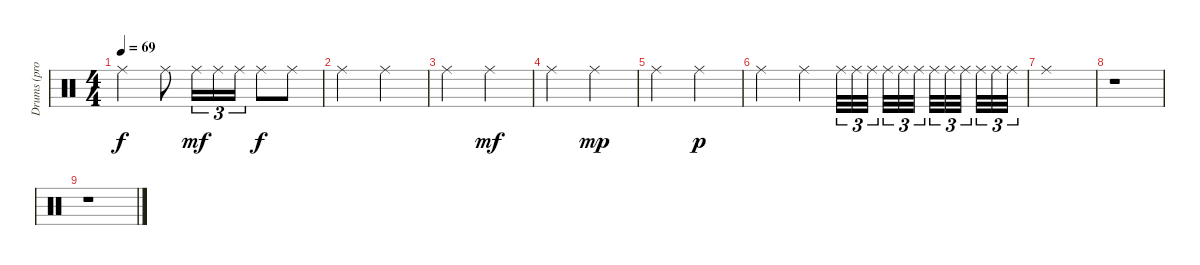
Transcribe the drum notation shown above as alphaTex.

\track ("Drums (proposal JZ)" "Drums (pro") {instrument percussion}
\staff {score}
\articulation defaults
\ts (4 4)
\tempo 69
\clef neutral
\ks c "Ride (middle)".2{dy f} "Ride (middle)".8 "Ride (middle)".16{tu (3 2) dy mf} "Ride (middle)".16{tu (3 2)} "Ride (middle)".16{tu (3 2)} "Ride (middle)".8{dy f} "Ride (middle)".8
|
"Ride (middle)".2 "Ride (middle)".2 |
"Ride (middle)".2 "Ride (middle)".2{dy mf} |
"Ride (middle)".2 "Ride (middle)".2{dy mp} |
"Ride (middle)".2 "Ride (middle)".2{dy p} |
"Ride (middle)".2 "Ride (middle)".4 "Ride (middle)".32{tu (3 2)} "Ride (middle)".32{tu (3 2)} "Ride (middle)".32{tu (3 2)} "Ride (middle)".32{tu (3 2)} "Ride (middle)".32{tu (3 2)} "Ride (middle)".32{tu (3 2)} "Ride (middle)".32{tu (3 2)} "Ride (middle)".32{tu (3 2)} "Ride (middle)".32{tu (3 2)} "Ride (middle)".32{tu (3 2)} "Ride (middle)".32{tu (3 2)} "Ride (middle)".32{tu (3 2)} |
"Ride (middle)".1 |
r.1 |
r.1
